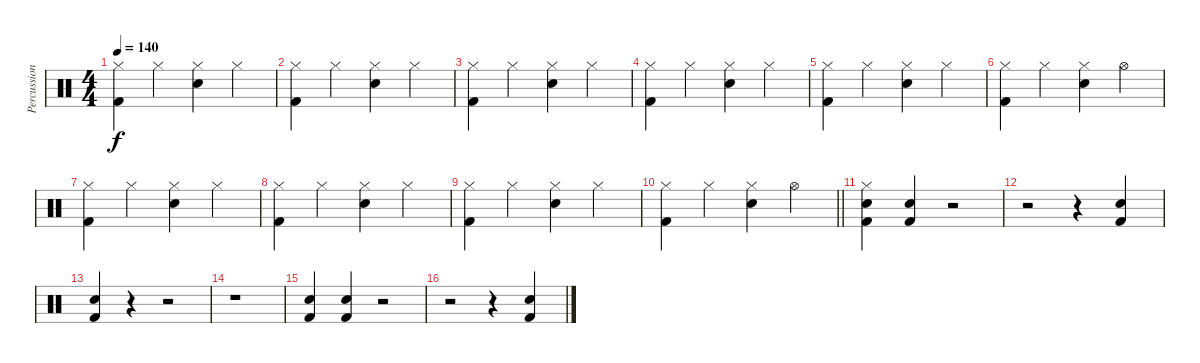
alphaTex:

\track ("Percussions" "Percussion") {instrument percussion}
\staff {score}
\articulation defaults
\ts (4 4)
\tempo 140
\clef neutral
\ks c
("Hi-Hat (closed)" "Kick (hit) 2").4{dy f} "Hi-Hat (closed)".4 ("Hi-Hat (closed)" "Electric Snare (hit)").4 "Hi-Hat (closed)".4 |
("Hi-Hat (closed)" "Kick (hit) 2").4 "Hi-Hat (closed)".4 ("Hi-Hat (closed)" "Electric Snare (hit)").4 "Hi-Hat (closed)".4 |
("Hi-Hat (closed)" "Kick (hit) 2").4 "Hi-Hat (closed)".4 ("Hi-Hat (closed)" "Electric Snare (hit)").4 "Hi-Hat (closed)".4 |
("Hi-Hat (closed)" "Kick (hit) 2").4 "Hi-Hat (closed)".4 ("Hi-Hat (closed)" "Electric Snare (hit)").4 "Hi-Hat (closed)".4 |
("Hi-Hat (closed)" "Kick (hit) 2").4 "Hi-Hat (closed)".4 ("Hi-Hat (closed)" "Electric Snare (hit)").4 "Hi-Hat (closed)".4 |
("Hi-Hat (closed)" "Kick (hit) 2").4 "Hi-Hat (closed)".4 ("Hi-Hat (closed)" "Electric Snare (hit)").4 "Hi-Hat (open)".4 |
("Hi-Hat (closed)" "Kick (hit) 2").4 "Hi-Hat (closed)".4 ("Hi-Hat (closed)" "Electric Snare (hit)").4 "Hi-Hat (closed)".4 |
("Hi-Hat (closed)" "Kick (hit) 2").4 "Hi-Hat (closed)".4 ("Hi-Hat (closed)" "Electric Snare (hit)").4 "Hi-Hat (closed)".4 |
("Hi-Hat (closed)" "Kick (hit) 2").4 "Hi-Hat (closed)".4 ("Hi-Hat (closed)" "Electric Snare (hit)").4 "Hi-Hat (closed)".4 |
\barLineRight lightlight
("Hi-Hat (closed)" "Kick (hit) 2").4 "Hi-Hat (closed)".4 ("Hi-Hat (closed)" "Electric Snare (hit)").4 "Hi-Hat (open)".4 |
("Hi-Hat (closed)" "Electric Snare (hit)" "Kick (hit) 2").4 ("Electric Snare (hit)" "Kick (hit) 2").4 r.2 |
r.2 r.4 ("Electric Snare (hit)" "Kick (hit) 2").4 |
("Electric Snare (hit)" "Kick (hit) 2").4 r.4 r.2 |
r.1 |
("Electric Snare (hit)" "Kick (hit) 2").4 ("Electric Snare (hit)" "Kick (hit) 2").4 r.2 |
r.2 r.4 ("Electric Snare (hit)" "Kick (hit) 2").4
